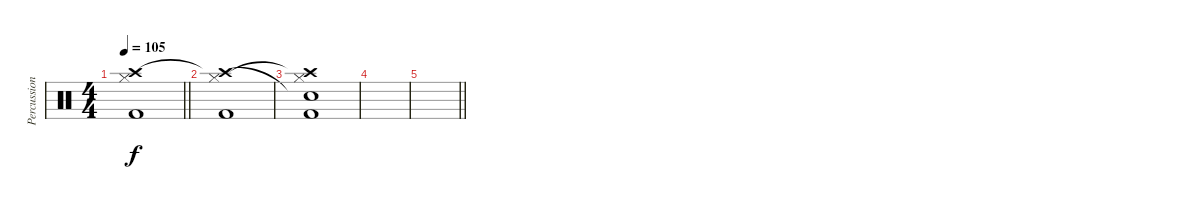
\track ("Percussion" "Percussion") {instrument percussion}
\staff {score}
\articulation defaults
\ts (4 4)
\tempo 105
\clef neutral
\barLineRight lightlight
\ks c
("Crash high (hit)"{t} "Hi-Hat (closed)" "Kick (hit) 2").1{dy f} |
("Crash high (hit)"{t} "Hi-Hat (closed)" "Kick (hit) 2").1 |
("Snare (hit)"{t} "Crash high (hit)"{t} "Hi-Hat (closed)" "Kick (hit) 2").1 |
|
\barLineRight lightlight
